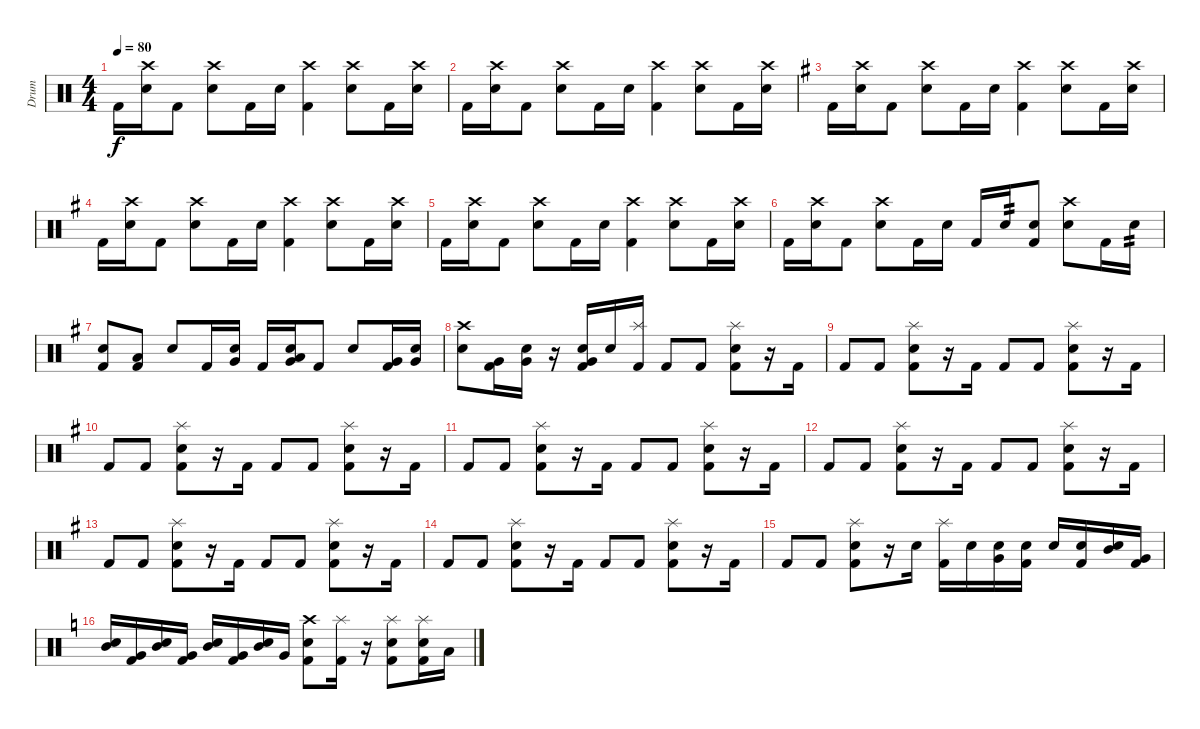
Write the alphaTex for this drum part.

\track ("Drum" "Drum") {instrument percussion}
\staff {score}
\articulation defaults
\ts (4 4)
\tempo 80
\clef neutral
\ks c "Kick (hit) 2".16{dy f}
("Electric Snare (hit)" "Crash high (hit)").16 "Kick (hit) 2".8 ("Electric Snare (hit)" "Crash high (hit)").8 "Kick (hit) 2".16 "Electric Snare (hit)".16 ("Kick (hit) 2" "Crash high (hit)").4 ("Electric Snare (hit)" "Crash high (hit)").8 "Kick (hit) 2".16 ("Electric Snare (hit)" "Crash high (hit)").16 |
"Kick (hit) 2".16 ("Electric Snare (hit)" "Crash high (hit)").16 "Kick (hit) 2".8 ("Electric Snare (hit)" "Crash high (hit)").8 "Kick (hit) 2".16 "Electric Snare (hit)".16 ("Kick (hit) 2" "Crash high (hit)").4 ("Electric Snare (hit)" "Crash high (hit)").8 "Kick (hit) 2".16 ("Electric Snare (hit)" "Crash high (hit)").16 |
\ks eminor "Kick (hit) 2".16
("Electric Snare (hit)" "Crash high (hit)").16 "Kick (hit) 2".8 ("Electric Snare (hit)" "Crash high (hit)").8 "Kick (hit) 2".16 "Electric Snare (hit)".16 ("Kick (hit) 2" "Crash high (hit)").4 ("Electric Snare (hit)" "Crash high (hit)").8 "Kick (hit) 2".16 ("Electric Snare (hit)" "Crash high (hit)").16 |
"Kick (hit) 2".16 ("Electric Snare (hit)" "Crash high (hit)").16 "Kick (hit) 2".8 ("Electric Snare (hit)" "Crash high (hit)").8 "Kick (hit) 2".16 "Electric Snare (hit)".16 ("Kick (hit) 2" "Crash high (hit)").4 ("Electric Snare (hit)" "Crash high (hit)").8 "Kick (hit) 2".16 ("Electric Snare (hit)" "Crash high (hit)").16 |
"Kick (hit) 2".16 ("Electric Snare (hit)" "Crash high (hit)").16 "Kick (hit) 2".8 ("Electric Snare (hit)" "Crash high (hit)").8 "Kick (hit) 2".16 "Electric Snare (hit)".16 ("Kick (hit) 2" "Crash high (hit)").4 ("Electric Snare (hit)" "Crash high (hit)").8 "Kick (hit) 2".16 ("Electric Snare (hit)" "Crash high (hit)").16 |
"Kick (hit) 2".16 ("Electric Snare (hit)" "Crash high (hit)").16 "Kick (hit) 2".8 ("Electric Snare (hit)" "Crash high (hit)").8 "Kick (hit) 2".16 "Electric Snare (hit)".16 "Kick (hit) 2".16 "Electric Snare (hit)".16{tp 2} ("Electric Snare (hit)" "Kick (hit) 2").8 ("Electric Snare (hit)" "Crash high (hit)").8 "Kick (hit) 2".16 "Electric Snare (hit)".16{tp 2} |
("Electric Snare (hit)" "Kick (hit) 2").8 ("Low Tom (hit)" "Kick (hit) 2").8 "Electric Snare (hit)".8 "Kick (hit) 2".16 ("Electric Snare (hit)" "Very Low Tom (hit)").16 "Kick (hit) 2".16 ("Electric Snare (hit)" "Low Tom (hit)" "Very Low Tom (hit)").16 "Kick (hit) 2".8 "Electric Snare (hit)".8 ("Very Low Tom (hit)" "Kick (hit) 2").16 ("Electric Snare (hit)" "Very Low Tom (hit)").16 |
("Electric Snare (hit)" "Crash high (hit)").8 ("Very Low Tom (hit)" "Kick (hit) 2").16 ("Electric Snare (hit)" "Very Low Tom (hit)").16 r.16{beam Up} ("Electric Snare (hit)" "Very Low Tom (hit)" "Kick (hit) 2").16{beam Up} "Electric Snare (hit)".16 ("Kick (hit) 2" "Splash (hit)").16 "Kick (hit) 2".8 "Kick (hit) 2".8 ("Electric Snare (hit)" "Kick (hit) 2" "Splash (hit)").8 r.16 "Kick (hit) 2".16 |
"Kick (hit) 2".8 "Kick (hit) 2".8 ("Electric Snare (hit)" "Kick (hit) 2" "Splash (hit)").8 r.16 "Kick (hit) 2".16 "Kick (hit) 2".8 "Kick (hit) 2".8 ("Electric Snare (hit)" "Kick (hit) 2" "Splash (hit)").8 r.16 "Kick (hit) 2".16 |
"Kick (hit) 2".8 "Kick (hit) 2".8 ("Electric Snare (hit)" "Kick (hit) 2" "Splash (hit)").8 r.16 "Kick (hit) 2".16 "Kick (hit) 2".8 "Kick (hit) 2".8 ("Electric Snare (hit)" "Kick (hit) 2" "Splash (hit)").8 r.16 "Kick (hit) 2".16 |
"Kick (hit) 2".8 "Kick (hit) 2".8 ("Electric Snare (hit)" "Kick (hit) 2" "Splash (hit)").8 r.16 "Kick (hit) 2".16 "Kick (hit) 2".8 "Kick (hit) 2".8 ("Electric Snare (hit)" "Kick (hit) 2" "Splash (hit)").8 r.16 "Kick (hit) 2".16 |
"Kick (hit) 2".8 "Kick (hit) 2".8 ("Electric Snare (hit)" "Kick (hit) 2" "Splash (hit)").8 r.16 "Kick (hit) 2".16 "Kick (hit) 2".8 "Kick (hit) 2".8 ("Electric Snare (hit)" "Kick (hit) 2" "Splash (hit)").8 r.16 "Kick (hit) 2".16 |
"Kick (hit) 2".8 "Kick (hit) 2".8 ("Electric Snare (hit)" "Kick (hit) 2" "Splash (hit)").8 r.16 "Kick (hit) 2".16 "Kick (hit) 2".8 "Kick (hit) 2".8 ("Electric Snare (hit)" "Kick (hit) 2" "Splash (hit)").8 r.16 "Kick (hit) 2".16 |
"Kick (hit) 2".8 "Kick (hit) 2".8 ("Electric Snare (hit)" "Kick (hit) 2" "Splash (hit)").8 r.16 "Kick (hit) 2".16 "Kick (hit) 2".8 "Kick (hit) 2".8 ("Electric Snare (hit)" "Kick (hit) 2" "Splash (hit)").8 r.16 "Kick (hit) 2".16 |
"Kick (hit) 2".8 "Kick (hit) 2".8 ("Electric Snare (hit)" "Kick (hit) 2" "Splash (hit)").8 r.16 "Electric Snare (hit)".16 ("Kick (hit) 2" "Splash (hit)").16 "Electric Snare (hit)".16 ("Electric Snare (hit)" "Very Low Tom (hit)").16 ("Electric Snare (hit)" "Kick (hit) 2").16 "Electric Snare (hit)".16 ("Electric Snare (hit)" "Kick (hit) 2").16 ("Electric Snare (hit)" "Mid Tom (hit)").16 ("Very Low Tom (hit)" "Kick (hit) 2").16 |
\ks c
("Electric Snare (hit)" "Mid Tom (hit)").16 ("Very Low Tom (hit)" "Kick (hit) 2").16 ("Electric Snare (hit)" "Mid Tom (hit)").16 ("Very Low Tom (hit)" "Kick (hit) 2").16 ("Electric Snare (hit)" "Mid Tom (hit)").16 ("Very Low Tom (hit)" "Kick (hit) 2").16 ("Electric Snare (hit)" "Mid Tom (hit)").16 "Very Low Tom (hit)".16 ("Electric Snare (hit)" "Kick (hit) 2" "Crash high (hit)").8 ("Kick (hit) 2" "Splash (hit)").16 r.16 ("Electric Snare (hit)" "Kick (hit) 2" "Splash (hit)").8 ("Electric Snare (hit)" "Kick (hit) 2" "Splash (hit)").16 "Low Tom (hit)".16
